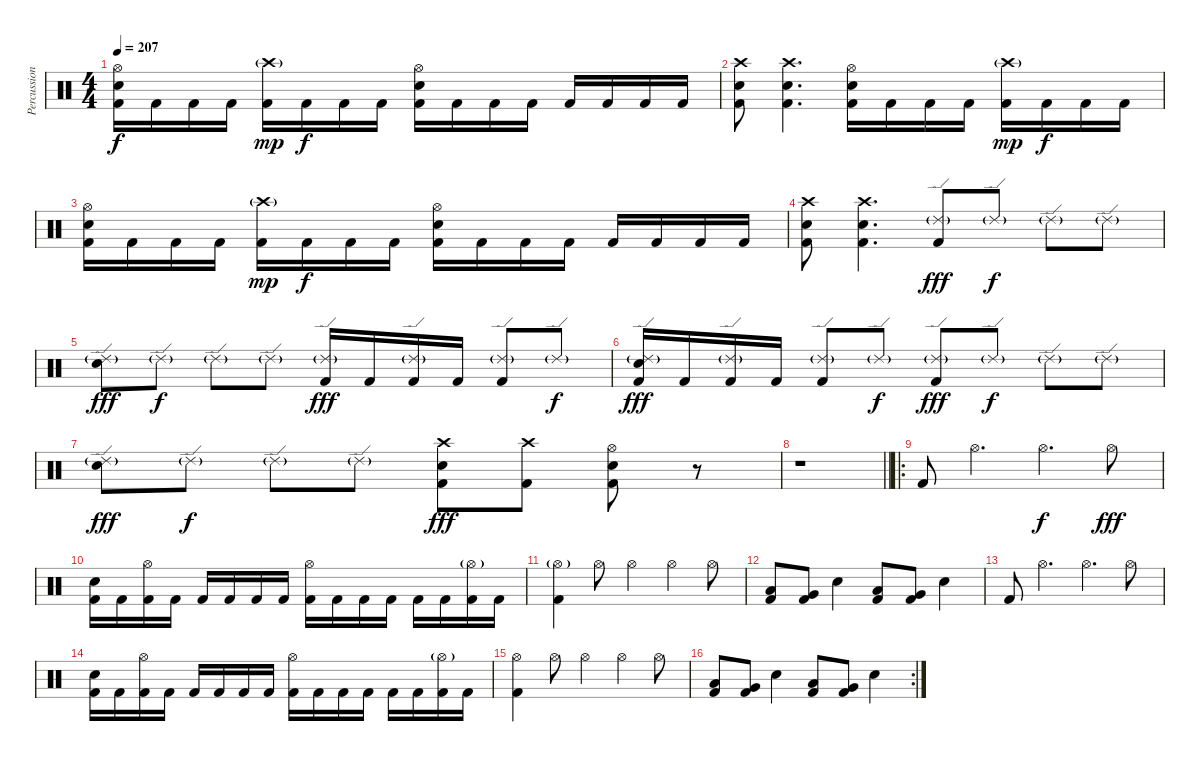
\track ("Percussion" "Percussion") {instrument percussion}
\staff {score}
\articulation defaults
\ts (4 4)
\tempo 207
\clef neutral
\ks c
("Hi-Hat (open)" "Electric Snare (hit)" "Kick (hit) 2").16{dy f} "Kick (hit) 2".16 "Kick (hit) 2".16 "Kick (hit) 2".16 ("Crash high (hit)"{g} "Kick (hit) 2").16{dy mp} "Kick (hit) 2".16{dy f} "Kick (hit) 2".16 "Kick (hit) 2".16 ("Hi-Hat (open)" "Electric Snare (hit)" "Kick (hit) 2").16 "Kick (hit) 2".16 "Kick (hit) 2".16 "Kick (hit) 2".16 "Kick (hit) 2".16 "Kick (hit) 2".16 "Kick (hit) 2".16 "Kick (hit) 2".16 |
("Crash high (hit)" "Electric Snare (hit)" "Kick (hit) 2").8 ("Crash high (hit)" "Electric Snare (hit)" "Kick (hit) 2").4{d} ("Hi-Hat (open)" "Electric Snare (hit)" "Kick (hit) 2").16 "Kick (hit) 2".16 "Kick (hit) 2".16 "Kick (hit) 2".16 ("Crash high (hit)"{g} "Kick (hit) 2").16{dy mp} "Kick (hit) 2".16{dy f} "Kick (hit) 2".16 "Kick (hit) 2".16 |
("Hi-Hat (open)" "Electric Snare (hit)" "Kick (hit) 2").16 "Kick (hit) 2".16 "Kick (hit) 2".16 "Kick (hit) 2".16 ("Crash high (hit)"{g} "Kick (hit) 2").16{dy mp} "Kick (hit) 2".16{dy f} "Kick (hit) 2".16 "Kick (hit) 2".16 ("Hi-Hat (open)" "Electric Snare (hit)" "Kick (hit) 2").16 "Kick (hit) 2".16 "Kick (hit) 2".16 "Kick (hit) 2".16 "Kick (hit) 2".16 "Kick (hit) 2".16 "Kick (hit) 2".16 "Kick (hit) 2".16 |
("Crash high (hit)" "Electric Snare (hit)" "Kick (hit) 2").8 ("Crash high (hit)" "Electric Snare (hit)" "Kick (hit) 2").4{d} ("Ride (edge) 2"{g} "Kick (hit) 2").8{dy fff} "Ride (edge) 2"{g}.8{dy f} "Ride (edge) 2"{g}.8 "Ride (edge) 2"{g}.8 |
("Ride (edge) 2"{g} "Electric Snare (hit)").8{dy fff} "Ride (edge) 2"{g}.8{dy f} "Ride (edge) 2"{g}.8 "Ride (edge) 2"{g}.8 ("Ride (edge) 2"{g} "Kick (hit) 2").16{dy fff} "Kick (hit) 2".16 ("Ride (edge) 2"{g} "Kick (hit) 2").16 "Kick (hit) 2".16 ("Ride (edge) 2"{g} "Kick (hit) 2").8 "Ride (edge) 2"{g}.8{dy f} |
("Ride (edge) 2"{g} "Electric Snare (hit)" "Kick (hit) 2").16{dy fff} "Kick (hit) 2".16 ("Ride (edge) 2"{g} "Kick (hit) 2").16 "Kick (hit) 2".16 ("Ride (edge) 2"{g} "Kick (hit) 2").8 "Ride (edge) 2"{g}.8{dy f} ("Ride (edge) 2"{g} "Kick (hit) 2").8{dy fff} "Ride (edge) 2"{g}.8{dy f} "Ride (edge) 2"{g}.8 "Ride (edge) 2"{g}.8 |
("Ride (edge) 2"{g} "Electric Snare (hit)").8{dy fff} "Ride (edge) 2"{g}.8{dy f} "Ride (edge) 2"{g}.8 "Ride (edge) 2"{g}.8 ("Crash high (hit)" "Electric Snare (hit)" "Kick (hit) 2").8{dy fff} ("Crash high (hit)" "Kick (hit) 2").8 ("Hi-Hat (open)" "Electric Snare (hit)" "Kick (hit) 2").8 r.8 |
\barLineRight lightlight
r.1 |
\ro
\section ("" "")
"Kick (hit) 2".8 "Hi-Hat (open)".4{d} "Hi-Hat (open)".4{d dy f} "Hi-Hat (open)".8{dy fff} |
("Electric Snare (hit)" "Kick (hit) 2").16 "Kick (hit) 2".16 ("Hi-Hat (open)" "Kick (hit) 2").16 "Kick (hit) 2".16 "Kick (hit) 2".16 "Kick (hit) 2".16 "Kick (hit) 2".16 "Kick (hit) 2".16 ("Hi-Hat (open)" "Kick (hit) 2").16 "Kick (hit) 2".16 "Kick (hit) 2".16 "Kick (hit) 2".16 "Kick (hit) 2".16 "Kick (hit) 2".16 ("Hi-Hat (open)"{g} "Kick (hit) 2").16 "Kick (hit) 2".16 |
("Hi-Hat (open)"{g} "Kick (hit) 2").4 "Hi-Hat (open)".8 "Hi-Hat (open)".4 "Hi-Hat (open)".4 "Hi-Hat (open)".8 |
("Low Tom (hit)" "Kick (hit) 2").8 ("Very Low Tom (hit)" "Kick (hit) 2").8 "Electric Snare (hit)".4 ("Low Tom (hit)" "Kick (hit) 2").8 ("Very Low Tom (hit)" "Kick (hit) 2").8 "Electric Snare (hit)".4 |
"Kick (hit) 2".8 "Hi-Hat (open)".4{d} "Hi-Hat (open)".4{d} "Hi-Hat (open)".8 |
("Electric Snare (hit)" "Kick (hit) 2").16 "Kick (hit) 2".16 ("Hi-Hat (open)" "Kick (hit) 2").16 "Kick (hit) 2".16 "Kick (hit) 2".16 "Kick (hit) 2".16 "Kick (hit) 2".16 "Kick (hit) 2".16 ("Hi-Hat (open)" "Kick (hit) 2").16 "Kick (hit) 2".16 "Kick (hit) 2".16 "Kick (hit) 2".16 "Kick (hit) 2".16 "Kick (hit) 2".16 ("Hi-Hat (open)"{g} "Kick (hit) 2").16 "Kick (hit) 2".16 |
("Hi-Hat (open)" "Kick (hit) 2").4 "Hi-Hat (open)".8 "Hi-Hat (open)".4 "Hi-Hat (open)".4 "Hi-Hat (open)".8 |
\rc 2
("Low Tom (hit)" "Kick (hit) 2").8 ("Very Low Tom (hit)" "Kick (hit) 2").8 "Electric Snare (hit)".4 ("Low Tom (hit)" "Kick (hit) 2").8 ("Very Low Tom (hit)" "Kick (hit) 2").8 "Electric Snare (hit)".4
